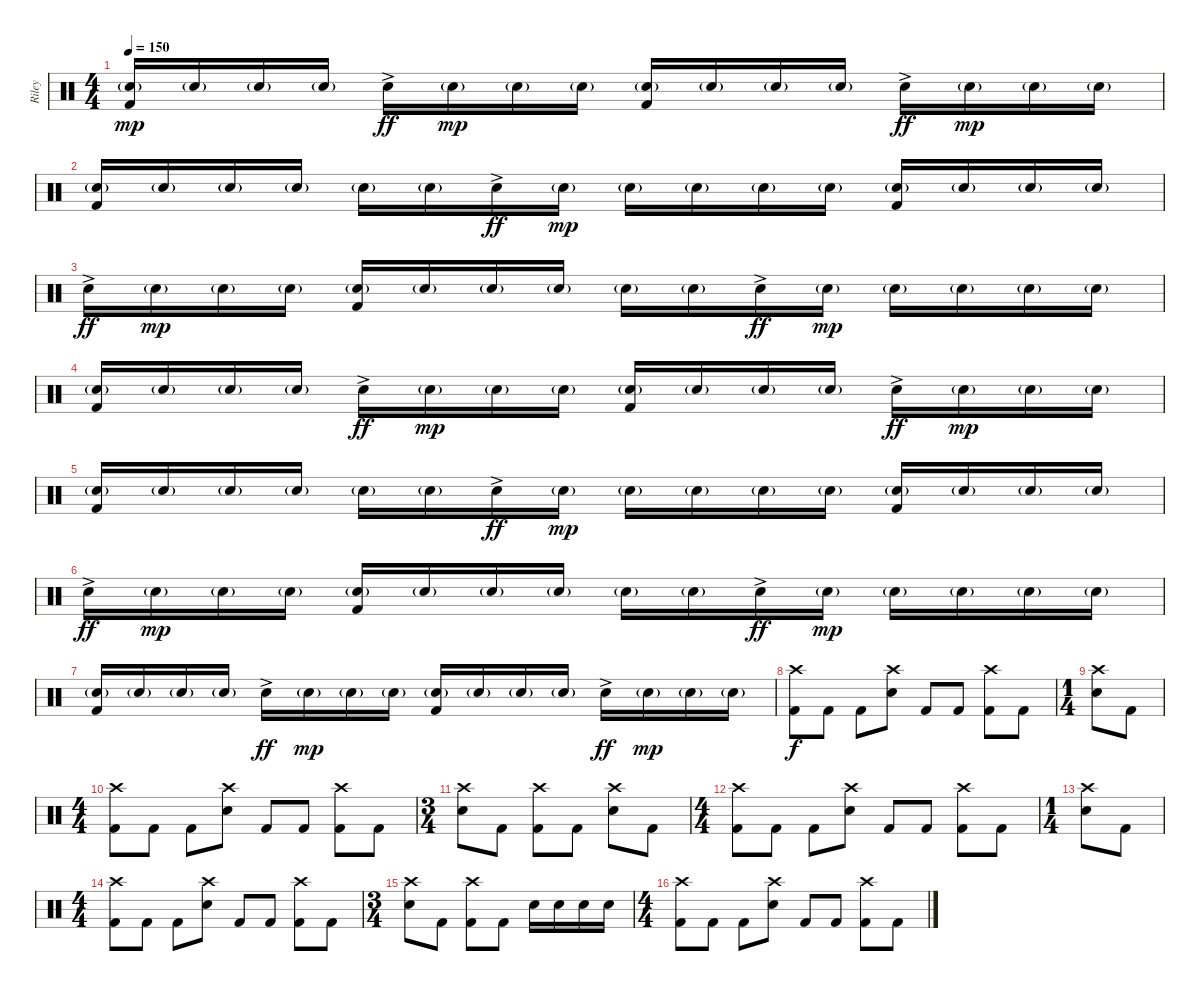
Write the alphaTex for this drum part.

\track ("Riley" "Riley") {instrument percussion}
\staff {score}
\articulation defaults
\ts (4 4)
\tempo 150
\clef neutral
\ks c
("Electric Snare (hit)"{g} "Kick (hit) 2").16{dy mp} "Electric Snare (hit)"{g}.16 "Electric Snare (hit)"{g}.16 "Electric Snare (hit)"{g}.16 "Electric Snare (hit)"{ac}.16{dy ff} "Electric Snare (hit)"{g}.16{dy mp} "Electric Snare (hit)"{g}.16 "Electric Snare (hit)"{g}.16 ("Electric Snare (hit)"{g} "Kick (hit) 2").16 "Electric Snare (hit)"{g}.16 "Electric Snare (hit)"{g}.16 "Electric Snare (hit)"{g}.16 "Electric Snare (hit)"{ac}.16{dy ff} "Electric Snare (hit)"{g}.16{dy mp} "Electric Snare (hit)"{g}.16 "Electric Snare (hit)"{g}.16 |
("Electric Snare (hit)"{g} "Kick (hit) 2").16 "Electric Snare (hit)"{g}.16 "Electric Snare (hit)"{g}.16 "Electric Snare (hit)"{g}.16 "Electric Snare (hit)"{g}.16 "Electric Snare (hit)"{g}.16 "Electric Snare (hit)"{ac}.16{dy ff} "Electric Snare (hit)"{g}.16{dy mp} "Electric Snare (hit)"{g}.16 "Electric Snare (hit)"{g}.16 "Electric Snare (hit)"{g}.16 "Electric Snare (hit)"{g}.16 ("Electric Snare (hit)"{g} "Kick (hit) 2").16 "Electric Snare (hit)"{g}.16 "Electric Snare (hit)"{g}.16 "Electric Snare (hit)"{g}.16 |
"Electric Snare (hit)"{ac}.16{dy ff} "Electric Snare (hit)"{g}.16{dy mp} "Electric Snare (hit)"{g}.16 "Electric Snare (hit)"{g}.16 ("Electric Snare (hit)"{g} "Kick (hit) 2").16 "Electric Snare (hit)"{g}.16 "Electric Snare (hit)"{g}.16 "Electric Snare (hit)"{g}.16 "Electric Snare (hit)"{g}.16 "Electric Snare (hit)"{g}.16 "Electric Snare (hit)"{ac}.16{dy ff} "Electric Snare (hit)"{g}.16{dy mp} "Electric Snare (hit)"{g}.16 "Electric Snare (hit)"{g}.16 "Electric Snare (hit)"{g}.16 "Electric Snare (hit)"{g}.16 |
("Electric Snare (hit)"{g} "Kick (hit) 2").16 "Electric Snare (hit)"{g}.16 "Electric Snare (hit)"{g}.16 "Electric Snare (hit)"{g}.16 "Electric Snare (hit)"{ac}.16{dy ff} "Electric Snare (hit)"{g}.16{dy mp} "Electric Snare (hit)"{g}.16 "Electric Snare (hit)"{g}.16 ("Electric Snare (hit)"{g} "Kick (hit) 2").16 "Electric Snare (hit)"{g}.16 "Electric Snare (hit)"{g}.16 "Electric Snare (hit)"{g}.16 "Electric Snare (hit)"{ac}.16{dy ff} "Electric Snare (hit)"{g}.16{dy mp} "Electric Snare (hit)"{g}.16 "Electric Snare (hit)"{g}.16 |
("Electric Snare (hit)"{g} "Kick (hit) 2").16 "Electric Snare (hit)"{g}.16 "Electric Snare (hit)"{g}.16 "Electric Snare (hit)"{g}.16 "Electric Snare (hit)"{g}.16 "Electric Snare (hit)"{g}.16 "Electric Snare (hit)"{ac}.16{dy ff} "Electric Snare (hit)"{g}.16{dy mp} "Electric Snare (hit)"{g}.16 "Electric Snare (hit)"{g}.16 "Electric Snare (hit)"{g}.16 "Electric Snare (hit)"{g}.16 ("Electric Snare (hit)"{g} "Kick (hit) 2").16 "Electric Snare (hit)"{g}.16 "Electric Snare (hit)"{g}.16 "Electric Snare (hit)"{g}.16 |
"Electric Snare (hit)"{ac}.16{dy ff} "Electric Snare (hit)"{g}.16{dy mp} "Electric Snare (hit)"{g}.16 "Electric Snare (hit)"{g}.16 ("Electric Snare (hit)"{g} "Kick (hit) 2").16 "Electric Snare (hit)"{g}.16 "Electric Snare (hit)"{g}.16 "Electric Snare (hit)"{g}.16 "Electric Snare (hit)"{g}.16 "Electric Snare (hit)"{g}.16 "Electric Snare (hit)"{ac}.16{dy ff} "Electric Snare (hit)"{g}.16{dy mp} "Electric Snare (hit)"{g}.16 "Electric Snare (hit)"{g}.16 "Electric Snare (hit)"{g}.16 "Electric Snare (hit)"{g}.16 |
("Electric Snare (hit)"{g} "Kick (hit) 2").16 "Electric Snare (hit)"{g}.16 "Electric Snare (hit)"{g}.16 "Electric Snare (hit)"{g}.16 "Electric Snare (hit)"{ac}.16{dy ff} "Electric Snare (hit)"{g}.16{dy mp} "Electric Snare (hit)"{g}.16 "Electric Snare (hit)"{g}.16 ("Electric Snare (hit)"{g} "Kick (hit) 2").16 "Electric Snare (hit)"{g}.16 "Electric Snare (hit)"{g}.16 "Electric Snare (hit)"{g}.16 "Electric Snare (hit)"{ac}.16{dy ff} "Electric Snare (hit)"{g}.16{dy mp} "Electric Snare (hit)"{g}.16 "Electric Snare (hit)"{g}.16 |
("Crash high (hit)" "Kick (hit) 2").8{dy f} "Kick (hit) 2".8 "Kick (hit) 2".8 ("Crash high (hit)" "Electric Snare (hit)").8 "Kick (hit) 2".8 "Kick (hit) 2".8 ("Crash high (hit)" "Kick (hit) 2").8 "Kick (hit) 2".8 |
\ts (1 4)
("Crash high (hit)" "Electric Snare (hit)").8 "Kick (hit) 2".8 |
\ts (4 4)
("Crash high (hit)" "Kick (hit) 2").8 "Kick (hit) 2".8 "Kick (hit) 2".8 ("Crash high (hit)" "Electric Snare (hit)").8 "Kick (hit) 2".8 "Kick (hit) 2".8 ("Crash high (hit)" "Kick (hit) 2").8 "Kick (hit) 2".8 |
\ts (3 4)
("Crash high (hit)" "Electric Snare (hit)").8 "Kick (hit) 2".8 ("Crash high (hit)" "Kick (hit) 2").8 "Kick (hit) 2".8 ("Crash high (hit)" "Electric Snare (hit)").8 "Kick (hit) 2".8 |
\ts (4 4)
("Crash high (hit)" "Kick (hit) 2").8 "Kick (hit) 2".8 "Kick (hit) 2".8 ("Crash high (hit)" "Electric Snare (hit)").8 "Kick (hit) 2".8 "Kick (hit) 2".8 ("Crash high (hit)" "Kick (hit) 2").8 "Kick (hit) 2".8 |
\ts (1 4)
("Crash high (hit)" "Electric Snare (hit)").8 "Kick (hit) 2".8 |
\ts (4 4)
("Crash high (hit)" "Kick (hit) 2").8 "Kick (hit) 2".8 "Kick (hit) 2".8 ("Crash high (hit)" "Electric Snare (hit)").8 "Kick (hit) 2".8 "Kick (hit) 2".8 ("Crash high (hit)" "Kick (hit) 2").8 "Kick (hit) 2".8 |
\ts (3 4)
("Crash high (hit)" "Electric Snare (hit)").8 "Kick (hit) 2".8 ("Crash high (hit)" "Kick (hit) 2").8 "Kick (hit) 2".8 "Electric Snare (hit)".16 "Electric Snare (hit)".16 "Electric Snare (hit)".16 "Electric Snare (hit)".16 |
\ts (4 4)
("Crash high (hit)" "Kick (hit) 2").8 "Kick (hit) 2".8 "Kick (hit) 2".8 ("Crash high (hit)" "Electric Snare (hit)").8 "Kick (hit) 2".8 "Kick (hit) 2".8 ("Crash high (hit)" "Kick (hit) 2").8 "Kick (hit) 2".8
